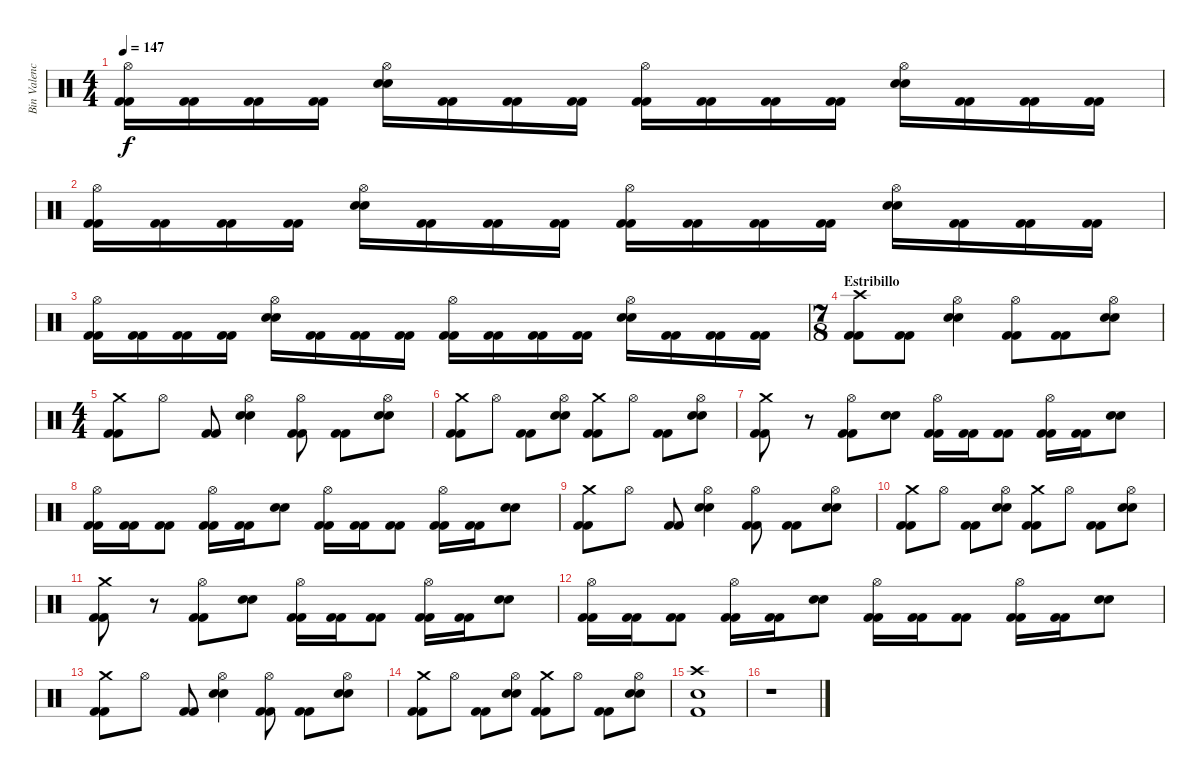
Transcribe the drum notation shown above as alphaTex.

\track ("Bin Valencia (Bateria)" "Bin Valenc") {instrument percussion}
\staff {score}
\articulation defaults
\ts (4 4)
\tempo 147
\clef neutral
\ks c
("Hi-Hat (open)" "Kick (hit) 2" "Kick (hit) 2").16{dy f} ("Kick (hit) 2" "Kick (hit) 2").16 ("Kick (hit) 2" "Kick (hit) 2").16 ("Kick (hit) 2" "Kick (hit) 2").16 ("Hi-Hat (open)" "Snare (hit) 2" "Snare (hit) 2").16 ("Kick (hit) 2" "Kick (hit) 2").16 ("Kick (hit) 2" "Kick (hit) 2").16 ("Kick (hit) 2" "Kick (hit) 2").16 ("Hi-Hat (open)" "Kick (hit) 2" "Kick (hit) 2").16 ("Kick (hit) 2" "Kick (hit) 2").16 ("Kick (hit) 2" "Kick (hit) 2").16 ("Kick (hit) 2" "Kick (hit) 2").16 ("Hi-Hat (open)" "Snare (hit) 2" "Snare (hit) 2").16 ("Kick (hit) 2" "Kick (hit) 2").16 ("Kick (hit) 2" "Kick (hit) 2").16 ("Kick (hit) 2" "Kick (hit) 2").16 |
("Hi-Hat (open)" "Kick (hit) 2" "Kick (hit) 2").16 ("Kick (hit) 2" "Kick (hit) 2").16 ("Kick (hit) 2" "Kick (hit) 2").16 ("Kick (hit) 2" "Kick (hit) 2").16 ("Hi-Hat (open)" "Snare (hit) 2" "Snare (hit) 2").16 ("Kick (hit) 2" "Kick (hit) 2").16 ("Kick (hit) 2" "Kick (hit) 2").16 ("Kick (hit) 2" "Kick (hit) 2").16 ("Hi-Hat (open)" "Kick (hit) 2" "Kick (hit) 2").16 ("Kick (hit) 2" "Kick (hit) 2").16 ("Kick (hit) 2" "Kick (hit) 2").16 ("Kick (hit) 2" "Kick (hit) 2").16 ("Hi-Hat (open)" "Snare (hit) 2" "Snare (hit) 2").16 ("Kick (hit) 2" "Kick (hit) 2").16 ("Kick (hit) 2" "Kick (hit) 2").16 ("Kick (hit) 2" "Kick (hit) 2").16 |
("Hi-Hat (open)" "Kick (hit) 2" "Kick (hit) 2").16 ("Kick (hit) 2" "Kick (hit) 2").16 ("Kick (hit) 2" "Kick (hit) 2").16 ("Kick (hit) 2" "Kick (hit) 2").16 ("Hi-Hat (open)" "Snare (hit) 2" "Snare (hit) 2").16 ("Kick (hit) 2" "Kick (hit) 2").16 ("Kick (hit) 2" "Kick (hit) 2").16 ("Kick (hit) 2" "Kick (hit) 2").16 ("Hi-Hat (open)" "Kick (hit) 2" "Kick (hit) 2").16 ("Kick (hit) 2" "Kick (hit) 2").16 ("Kick (hit) 2" "Kick (hit) 2").16 ("Kick (hit) 2" "Kick (hit) 2").16 ("Hi-Hat (open)" "Snare (hit) 2" "Snare (hit) 2").16 ("Kick (hit) 2" "Kick (hit) 2").16 ("Kick (hit) 2" "Kick (hit) 2").16 ("Kick (hit) 2" "Kick (hit) 2").16 |
\ts (7 8)
\section ("" "Estribillo")
("Crash high (hit)" "Kick (hit) 2" "Kick (hit) 2").8 ("Kick (hit) 2" "Kick (hit) 2").8 ("Hi-Hat (open)" "Snare (hit) 2" "Snare (hit) 2").4 ("Hi-Hat (open)" "Kick (hit) 2" "Kick (hit) 2").8 ("Kick (hit) 2" "Kick (hit) 2").8 ("Hi-Hat (open)" "Snare (hit) 2" "Snare (hit) 2").8 |
\ts (4 4)
("Crash medium (hit)" "Kick (hit) 2" "Kick (hit) 2").8 "Hi-Hat (open)".8 ("Kick (hit) 2" "Kick (hit) 2").8 ("Hi-Hat (open)" "Snare (hit) 2" "Snare (hit) 2").4 ("Hi-Hat (open)" "Kick (hit) 2" "Kick (hit) 2").8 ("Kick (hit) 2" "Kick (hit) 2").8 ("Hi-Hat (open)" "Snare (hit) 2" "Snare (hit) 2").8 |
("Crash medium (hit)" "Kick (hit) 2" "Kick (hit) 2").8 "Hi-Hat (open)".8 ("Kick (hit) 2" "Kick (hit) 2").8 ("Hi-Hat (open)" "Snare (hit) 2" "Snare (hit) 2").8 ("Crash medium (hit)" "Kick (hit) 2" "Kick (hit) 2").8 "Hi-Hat (open)".8 ("Kick (hit) 2" "Kick (hit) 2").8 ("Hi-Hat (open)" "Snare (hit) 2" "Snare (hit) 2").8 |
("Crash medium (hit)" "Kick (hit) 2" "Kick (hit) 2").8 r.8 ("Hi-Hat (open)" "Kick (hit) 2" "Kick (hit) 2").8 ("Snare (hit) 2" "Snare (hit) 2").8 ("Hi-Hat (open)" "Kick (hit) 2" "Kick (hit) 2").16 ("Kick (hit) 2" "Kick (hit) 2").16 ("Kick (hit) 2" "Kick (hit) 2").8 ("Hi-Hat (open)" "Kick (hit) 2" "Kick (hit) 2").16 ("Kick (hit) 2" "Kick (hit) 2").16 ("Snare (hit) 2" "Snare (hit) 2").8 |
("Hi-Hat (open)" "Kick (hit) 2" "Kick (hit) 2").16 ("Kick (hit) 2" "Kick (hit) 2").16 ("Kick (hit) 2" "Kick (hit) 2").8 ("Hi-Hat (open)" "Kick (hit) 2" "Kick (hit) 2").16 ("Kick (hit) 2" "Kick (hit) 2").16 ("Snare (hit) 2" "Snare (hit) 2").8 ("Hi-Hat (open)" "Kick (hit) 2" "Kick (hit) 2").16 ("Kick (hit) 2" "Kick (hit) 2").16 ("Kick (hit) 2" "Kick (hit) 2").8 ("Hi-Hat (open)" "Kick (hit) 2" "Kick (hit) 2").16 ("Kick (hit) 2" "Kick (hit) 2").16 ("Snare (hit) 2" "Snare (hit) 2").8 |
("Crash medium (hit)" "Kick (hit) 2" "Kick (hit) 2").8 "Hi-Hat (open)".8 ("Kick (hit) 2" "Kick (hit) 2").8 ("Hi-Hat (open)" "Snare (hit) 2" "Snare (hit) 2").4 ("Hi-Hat (open)" "Kick (hit) 2" "Kick (hit) 2").8 ("Kick (hit) 2" "Kick (hit) 2").8 ("Hi-Hat (open)" "Snare (hit) 2" "Snare (hit) 2").8 |
("Crash medium (hit)" "Kick (hit) 2" "Kick (hit) 2").8 "Hi-Hat (open)".8 ("Kick (hit) 2" "Kick (hit) 2").8 ("Hi-Hat (open)" "Snare (hit) 2" "Snare (hit) 2").8 ("Crash medium (hit)" "Kick (hit) 2" "Kick (hit) 2").8 "Hi-Hat (open)".8 ("Kick (hit) 2" "Kick (hit) 2").8 ("Hi-Hat (open)" "Snare (hit) 2" "Snare (hit) 2").8 |
("Crash medium (hit)" "Kick (hit) 2" "Kick (hit) 2").8 r.8 ("Hi-Hat (open)" "Kick (hit) 2" "Kick (hit) 2").8 ("Snare (hit) 2" "Snare (hit) 2").8 ("Hi-Hat (open)" "Kick (hit) 2" "Kick (hit) 2").16 ("Kick (hit) 2" "Kick (hit) 2").16 ("Kick (hit) 2" "Kick (hit) 2").8 ("Hi-Hat (open)" "Kick (hit) 2" "Kick (hit) 2").16 ("Kick (hit) 2" "Kick (hit) 2").16 ("Snare (hit) 2" "Snare (hit) 2").8 |
("Hi-Hat (open)" "Kick (hit) 2" "Kick (hit) 2").16 ("Kick (hit) 2" "Kick (hit) 2").16 ("Kick (hit) 2" "Kick (hit) 2").8 ("Hi-Hat (open)" "Kick (hit) 2" "Kick (hit) 2").16 ("Kick (hit) 2" "Kick (hit) 2").16 ("Snare (hit) 2" "Snare (hit) 2").8 ("Hi-Hat (open)" "Kick (hit) 2" "Kick (hit) 2").16 ("Kick (hit) 2" "Kick (hit) 2").16 ("Kick (hit) 2" "Kick (hit) 2").8 ("Hi-Hat (open)" "Kick (hit) 2" "Kick (hit) 2").16 ("Kick (hit) 2" "Kick (hit) 2").16 ("Snare (hit) 2" "Snare (hit) 2").8 |
("Crash medium (hit)" "Kick (hit) 2" "Kick (hit) 2").8 "Hi-Hat (open)".8 ("Kick (hit) 2" "Kick (hit) 2").8 ("Hi-Hat (open)" "Snare (hit) 2" "Snare (hit) 2").4 ("Hi-Hat (open)" "Kick (hit) 2" "Kick (hit) 2").8 ("Kick (hit) 2" "Kick (hit) 2").8 ("Hi-Hat (open)" "Snare (hit) 2" "Snare (hit) 2").8 |
("Crash medium (hit)" "Kick (hit) 2" "Kick (hit) 2").8 "Hi-Hat (open)".8 ("Kick (hit) 2" "Kick (hit) 2").8 ("Hi-Hat (open)" "Snare (hit) 2" "Snare (hit) 2").8 ("Crash medium (hit)" "Kick (hit) 2" "Kick (hit) 2").8 "Hi-Hat (open)".8 ("Kick (hit) 2" "Kick (hit) 2").8 ("Hi-Hat (open)" "Snare (hit) 2" "Snare (hit) 2").8 |
("Crash high (hit)" "Snare (hit) 2" "Kick (hit) 2").1 |
r.1
